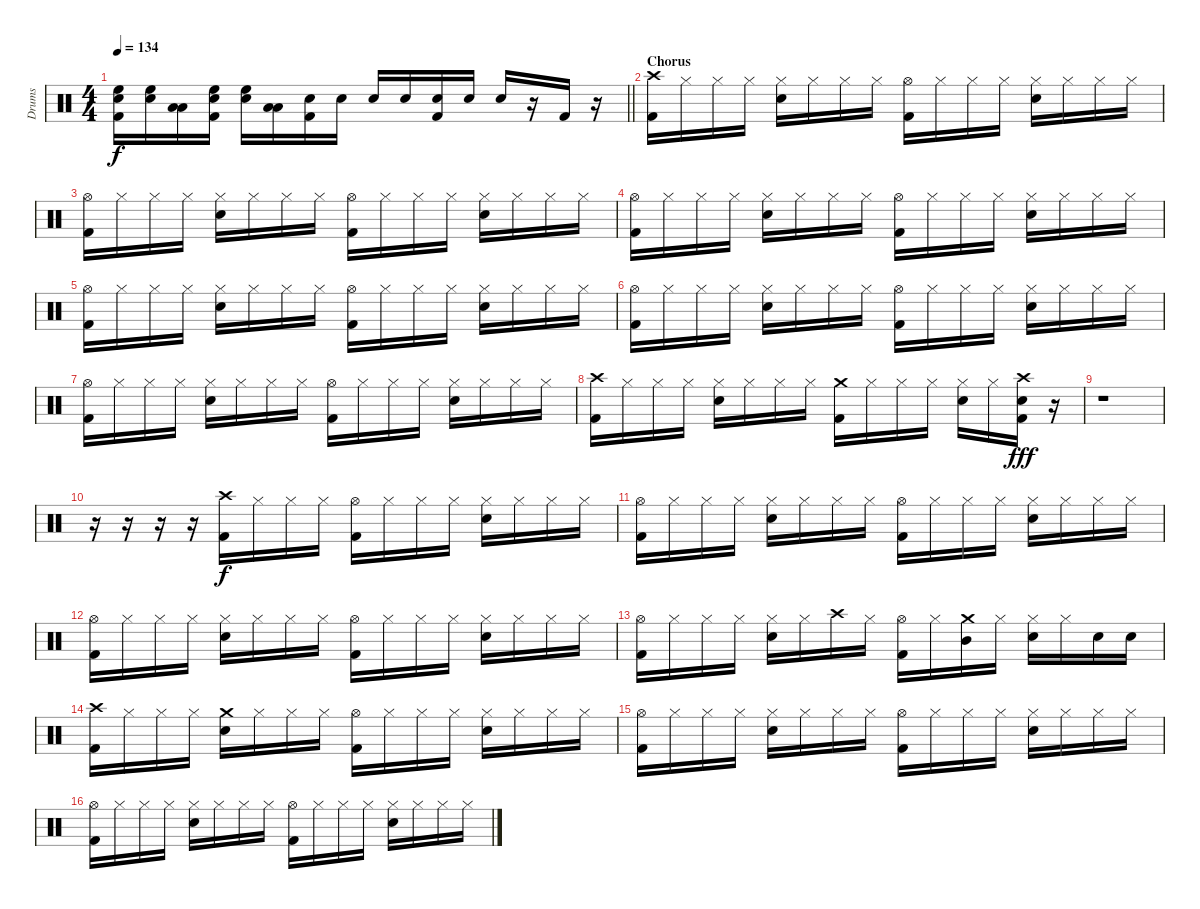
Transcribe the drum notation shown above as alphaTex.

\track ("Drums" "Drums") {instrument percussion}
\staff {score}
\articulation defaults
\ts (4 4)
\tempo 134
\clef neutral
\barLineRight lightlight
\ks c
("Snare (hit) 2" "High Floor Tom (hit)" "Kick (hit) 2").16{dy f} ("Snare (hit) 2" "High Floor Tom (hit)").16 ("Low Tom (hit)" "Low Floor Tom (hit)").16 ("Snare (hit) 2" "High Floor Tom (hit)" "Kick (hit) 2").16 ("Snare (hit) 2" "High Floor Tom (hit)").16 ("Low Tom (hit)" "Low Floor Tom (hit)").16 ("Snare (hit) 2" "Kick (hit) 2").16 "Snare (hit) 2".16 "Snare (hit) 2".16 "Snare (hit) 2".16 ("Snare (hit) 2" "Kick (hit) 2").16 "Snare (hit) 2".16 "Snare (hit) 2".16 r.16 "Kick (hit) 2".16 r.16 |
\section ("" "Chorus")
("Crash high (hit)" "Kick (hit) 2").16 "Hi-Hat (closed)".16 "Hi-Hat (closed)".16 "Hi-Hat (closed)".16 ("Hi-Hat (closed)" "Snare (hit) 2").16 "Hi-Hat (closed)".16 "Hi-Hat (closed)".16 "Hi-Hat (closed)".16 ("Hi-Hat (open)" "Kick (hit) 2").16 "Hi-Hat (closed)".16 "Hi-Hat (closed)".16 "Hi-Hat (closed)".16 ("Hi-Hat (closed)" "Snare (hit) 2").16 "Hi-Hat (closed)".16 "Hi-Hat (closed)".16 "Hi-Hat (closed)".16 |
("Hi-Hat (open)" "Kick (hit) 2").16 "Hi-Hat (closed)".16 "Hi-Hat (closed)".16 "Hi-Hat (closed)".16 ("Hi-Hat (closed)" "Snare (hit) 2").16 "Hi-Hat (closed)".16 "Hi-Hat (closed)".16 "Hi-Hat (closed)".16 ("Hi-Hat (open)" "Kick (hit) 2").16 "Hi-Hat (closed)".16 "Hi-Hat (closed)".16 "Hi-Hat (closed)".16 ("Hi-Hat (closed)" "Snare (hit) 2").16 "Hi-Hat (closed)".16 "Hi-Hat (closed)".16 "Hi-Hat (closed)".16 |
("Hi-Hat (open)" "Kick (hit) 2").16 "Hi-Hat (closed)".16 "Hi-Hat (closed)".16 "Hi-Hat (closed)".16 ("Hi-Hat (closed)" "Snare (hit) 2").16 "Hi-Hat (closed)".16 "Hi-Hat (closed)".16 "Hi-Hat (closed)".16 ("Hi-Hat (open)" "Kick (hit) 2").16 "Hi-Hat (closed)".16 "Hi-Hat (closed)".16 "Hi-Hat (closed)".16 ("Hi-Hat (closed)" "Snare (hit) 2").16 "Hi-Hat (closed)".16 "Hi-Hat (closed)".16 "Hi-Hat (closed)".16 |
("Hi-Hat (open)" "Kick (hit) 2").16 "Hi-Hat (closed)".16 "Hi-Hat (closed)".16 "Hi-Hat (closed)".16 ("Hi-Hat (closed)" "Snare (hit) 2").16 "Hi-Hat (closed)".16 "Hi-Hat (closed)".16 "Hi-Hat (closed)".16 ("Hi-Hat (open)" "Kick (hit) 2").16 "Hi-Hat (closed)".16 "Hi-Hat (closed)".16 "Hi-Hat (closed)".16 ("Hi-Hat (closed)" "Snare (hit) 2").16 "Hi-Hat (closed)".16 "Hi-Hat (closed)".16 "Hi-Hat (closed)".16 |
("Hi-Hat (open)" "Kick (hit) 2").16 "Hi-Hat (closed)".16 "Hi-Hat (closed)".16 "Hi-Hat (closed)".16 ("Hi-Hat (closed)" "Snare (hit) 2").16 "Hi-Hat (closed)".16 "Hi-Hat (closed)".16 "Hi-Hat (closed)".16 ("Hi-Hat (open)" "Kick (hit) 2").16 "Hi-Hat (closed)".16 "Hi-Hat (closed)".16 "Hi-Hat (closed)".16 ("Hi-Hat (closed)" "Snare (hit) 2").16 "Hi-Hat (closed)".16 "Hi-Hat (closed)".16 "Hi-Hat (closed)".16 |
("Hi-Hat (open)" "Kick (hit) 2").16 "Hi-Hat (closed)".16 "Hi-Hat (closed)".16 "Hi-Hat (closed)".16 ("Hi-Hat (closed)" "Snare (hit) 2").16 "Hi-Hat (closed)".16 "Hi-Hat (closed)".16 "Hi-Hat (closed)".16 ("Hi-Hat (open)" "Kick (hit) 2").16 "Hi-Hat (closed)".16 "Hi-Hat (closed)".16 "Hi-Hat (closed)".16 ("Hi-Hat (closed)" "Snare (hit) 2").16 "Hi-Hat (closed)".16 "Hi-Hat (closed)".16 "Hi-Hat (closed)".16 |
("Crash high (hit)" "Kick (hit) 2").16 "Hi-Hat (closed)".16 "Hi-Hat (closed)".16 "Hi-Hat (closed)".16 ("Hi-Hat (closed)" "Snare (hit) 2").16 "Hi-Hat (closed)".16 "Hi-Hat (closed)".16 "Hi-Hat (closed)".16 ("Crash medium (hit)" "Kick (hit) 2").16 "Hi-Hat (closed)".16 "Hi-Hat (closed)".16 "Hi-Hat (closed)".16 ("Hi-Hat (closed)" "Snare (hit) 2").16 "Hi-Hat (closed)".16 ("Crash high (hit)" "Snare (hit) 2" "Kick (hit) 2").16{dy fff} r.16 |
r.1 |
r.16 r.16 r.16 r.16 ("Crash high (hit)" "Kick (hit) 2").16{dy f} "Hi-Hat (closed)".16 "Hi-Hat (closed)".16 "Hi-Hat (closed)".16 ("Hi-Hat (open)" "Kick (hit) 2").16 "Hi-Hat (closed)".16 "Hi-Hat (closed)".16 "Hi-Hat (closed)".16 ("Hi-Hat (closed)" "Snare (hit) 2").16 "Hi-Hat (closed)".16 "Hi-Hat (closed)".16 "Hi-Hat (closed)".16 |
("Hi-Hat (open)" "Kick (hit) 2").16 "Hi-Hat (closed)".16 "Hi-Hat (closed)".16 "Hi-Hat (closed)".16 ("Hi-Hat (closed)" "Snare (hit) 2").16 "Hi-Hat (closed)".16 "Hi-Hat (closed)".16 "Hi-Hat (closed)".16 ("Hi-Hat (open)" "Kick (hit) 2").16 "Hi-Hat (closed)".16 "Hi-Hat (closed)".16 "Hi-Hat (closed)".16 ("Hi-Hat (closed)" "Snare (hit) 2").16 "Hi-Hat (closed)".16 "Hi-Hat (closed)".16 "Hi-Hat (closed)".16 |
("Hi-Hat (open)" "Kick (hit) 2").16 "Hi-Hat (closed)".16 "Hi-Hat (closed)".16 "Hi-Hat (closed)".16 ("Hi-Hat (closed)" "Snare (hit) 2").16 "Hi-Hat (closed)".16 "Hi-Hat (closed)".16 "Hi-Hat (closed)".16 ("Hi-Hat (open)" "Kick (hit) 2").16 "Hi-Hat (closed)".16 "Hi-Hat (closed)".16 "Hi-Hat (closed)".16 ("Hi-Hat (closed)" "Snare (hit) 2").16 "Hi-Hat (closed)".16 "Hi-Hat (closed)".16 "Hi-Hat (closed)".16 |
("Hi-Hat (open)" "Kick (hit) 2").16 "Hi-Hat (closed)".16 "Hi-Hat (closed)".16 "Hi-Hat (closed)".16 ("Hi-Hat (closed)" "Snare (hit) 2").16 "Hi-Hat (closed)".16 "Crash high (hit)".16 "Hi-Hat (closed)".16 ("Hi-Hat (open)" "Kick (hit) 2").16 "Hi-Hat (closed)".16 ("Crash medium (hit)" "Mid Tom (hit)").16 "Hi-Hat (closed)".16 ("Hi-Hat (closed)" "Snare (hit) 2").16 "Hi-Hat (closed)".16 "Snare (hit) 2".16 "Snare (hit) 2".16 |
("Crash high (hit)" "Kick (hit) 2").16 "Hi-Hat (closed)".16 "Hi-Hat (closed)".16 "Hi-Hat (closed)".16 ("Crash medium (hit)" "Snare (hit) 2").16 "Hi-Hat (closed)".16 "Hi-Hat (closed)".16 "Hi-Hat (closed)".16 ("Hi-Hat (open)" "Kick (hit) 2").16 "Hi-Hat (closed)".16 "Hi-Hat (closed)".16 "Hi-Hat (closed)".16 ("Hi-Hat (closed)" "Snare (hit) 2").16 "Hi-Hat (closed)".16 "Hi-Hat (closed)".16 "Hi-Hat (closed)".16 |
("Hi-Hat (open)" "Kick (hit) 2").16 "Hi-Hat (closed)".16 "Hi-Hat (closed)".16 "Hi-Hat (closed)".16 ("Hi-Hat (closed)" "Snare (hit) 2").16 "Hi-Hat (closed)".16 "Hi-Hat (closed)".16 "Hi-Hat (closed)".16 ("Hi-Hat (open)" "Kick (hit) 2").16 "Hi-Hat (closed)".16 "Hi-Hat (closed)".16 "Hi-Hat (closed)".16 ("Hi-Hat (closed)" "Snare (hit) 2").16 "Hi-Hat (closed)".16 "Hi-Hat (closed)".16 "Hi-Hat (closed)".16 |
("Hi-Hat (open)" "Kick (hit) 2").16 "Hi-Hat (closed)".16 "Hi-Hat (closed)".16 "Hi-Hat (closed)".16 ("Hi-Hat (closed)" "Snare (hit) 2").16 "Hi-Hat (closed)".16 "Hi-Hat (closed)".16 "Hi-Hat (closed)".16 ("Hi-Hat (open)" "Kick (hit) 2").16 "Hi-Hat (closed)".16 "Hi-Hat (closed)".16 "Hi-Hat (closed)".16 ("Hi-Hat (closed)" "Snare (hit) 2").16 "Hi-Hat (closed)".16 "Hi-Hat (closed)".16 "Hi-Hat (closed)".16
